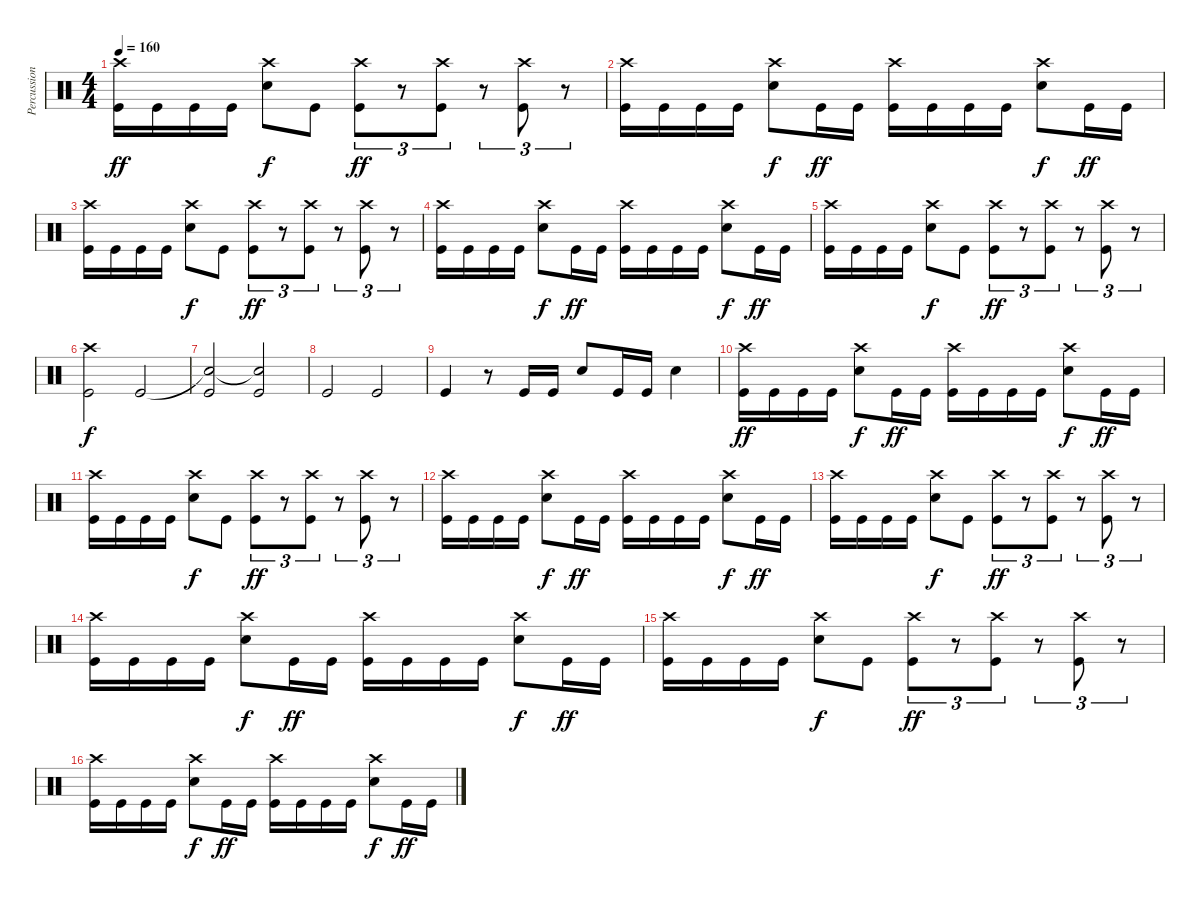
\track ("Percussion" "Percussion") {instrument percussion}
\staff {score}
\articulation defaults
\ts (4 4)
\tempo 160
\clef neutral
\ks c
("Crash high (hit)" "Kick (hit)").16{dy ff} "Kick (hit)".16 "Kick (hit)".16 "Kick (hit)".16 ("Crash high (hit)" "Electric Snare (hit)").8{dy f} "Kick (hit)".8 ("Crash high (hit)" "Kick (hit)").8{tu (3 2) dy ff} r.8{tu (3 2)} ("Crash high (hit)" "Kick (hit)").8{tu (3 2)} r.8{tu (3 2)} ("Crash high (hit)" "Kick (hit)").8{tu (3 2)} r.8{tu (3 2)} |
("Crash high (hit)" "Kick (hit)").16 "Kick (hit)".16 "Kick (hit)".16 "Kick (hit)".16 ("Crash high (hit)" "Electric Snare (hit)").8{dy f} "Kick (hit)".16{dy ff} "Kick (hit)".16 ("Crash high (hit)" "Kick (hit)").16 "Kick (hit)".16 "Kick (hit)".16 "Kick (hit)".16 ("Crash high (hit)" "Electric Snare (hit)").8{dy f} "Kick (hit)".16{dy ff} "Kick (hit)".16 |
("Crash high (hit)" "Kick (hit)").16 "Kick (hit)".16 "Kick (hit)".16 "Kick (hit)".16 ("Crash high (hit)" "Electric Snare (hit)").8{dy f} "Kick (hit)".8 ("Crash high (hit)" "Kick (hit)").8{tu (3 2) dy ff} r.8{tu (3 2)} ("Crash high (hit)" "Kick (hit)").8{tu (3 2)} r.8{tu (3 2)} ("Crash high (hit)" "Kick (hit)").8{tu (3 2)} r.8{tu (3 2)} |
("Crash high (hit)" "Kick (hit)").16 "Kick (hit)".16 "Kick (hit)".16 "Kick (hit)".16 ("Crash high (hit)" "Electric Snare (hit)").8{dy f} "Kick (hit)".16{dy ff} "Kick (hit)".16 ("Crash high (hit)" "Kick (hit)").16 "Kick (hit)".16 "Kick (hit)".16 "Kick (hit)".16 ("Crash high (hit)" "Electric Snare (hit)").8{dy f} "Kick (hit)".16{dy ff} "Kick (hit)".16 |
("Crash high (hit)" "Kick (hit)").16 "Kick (hit)".16 "Kick (hit)".16 "Kick (hit)".16 ("Crash high (hit)" "Electric Snare (hit)").8{dy f} "Kick (hit)".8 ("Crash high (hit)" "Kick (hit)").8{tu (3 2) dy ff} r.8{tu (3 2)} ("Crash high (hit)" "Kick (hit)").8{tu (3 2)} r.8{tu (3 2)} ("Crash high (hit)" "Kick (hit)").8{tu (3 2)} r.8{tu (3 2)} |
("Crash high (hit)" "Kick (hit)").2{dy f} "Kick (hit)".2 |
("Snare (hit)"{t} "Kick (hit)").2 ("Snare (hit)"{t} "Kick (hit)").2 |
"Kick (hit)".2 "Kick (hit)".2 |
"Kick (hit)".4 r.8 "Kick (hit)".16 "Kick (hit)".16 "Electric Snare (hit)".8 "Kick (hit)".16 "Kick (hit)".16 "Electric Snare (hit)".4 |
("Crash high (hit)" "Kick (hit)").16{dy ff} "Kick (hit)".16 "Kick (hit)".16 "Kick (hit)".16 ("Crash high (hit)" "Electric Snare (hit)").8{dy f} "Kick (hit)".16{dy ff} "Kick (hit)".16 ("Crash high (hit)" "Kick (hit)").16 "Kick (hit)".16 "Kick (hit)".16 "Kick (hit)".16 ("Crash high (hit)" "Electric Snare (hit)").8{dy f} "Kick (hit)".16{dy ff} "Kick (hit)".16 |
("Crash high (hit)" "Kick (hit)").16 "Kick (hit)".16 "Kick (hit)".16 "Kick (hit)".16 ("Crash high (hit)" "Electric Snare (hit)").8{dy f} "Kick (hit)".8 ("Crash high (hit)" "Kick (hit)").8{tu (3 2) dy ff} r.8{tu (3 2)} ("Crash high (hit)" "Kick (hit)").8{tu (3 2)} r.8{tu (3 2)} ("Crash high (hit)" "Kick (hit)").8{tu (3 2)} r.8{tu (3 2)} |
("Crash high (hit)" "Kick (hit)").16 "Kick (hit)".16 "Kick (hit)".16 "Kick (hit)".16 ("Crash high (hit)" "Electric Snare (hit)").8{dy f} "Kick (hit)".16{dy ff} "Kick (hit)".16 ("Crash high (hit)" "Kick (hit)").16 "Kick (hit)".16 "Kick (hit)".16 "Kick (hit)".16 ("Crash high (hit)" "Electric Snare (hit)").8{dy f} "Kick (hit)".16{dy ff} "Kick (hit)".16 |
("Crash high (hit)" "Kick (hit)").16 "Kick (hit)".16 "Kick (hit)".16 "Kick (hit)".16 ("Crash high (hit)" "Electric Snare (hit)").8{dy f} "Kick (hit)".8 ("Crash high (hit)" "Kick (hit)").8{tu (3 2) dy ff} r.8{tu (3 2)} ("Crash high (hit)" "Kick (hit)").8{tu (3 2)} r.8{tu (3 2)} ("Crash high (hit)" "Kick (hit)").8{tu (3 2)} r.8{tu (3 2)} |
("Crash high (hit)" "Kick (hit)").16 "Kick (hit)".16 "Kick (hit)".16 "Kick (hit)".16 ("Crash high (hit)" "Electric Snare (hit)").8{dy f} "Kick (hit)".16{dy ff} "Kick (hit)".16 ("Crash high (hit)" "Kick (hit)").16 "Kick (hit)".16 "Kick (hit)".16 "Kick (hit)".16 ("Crash high (hit)" "Electric Snare (hit)").8{dy f} "Kick (hit)".16{dy ff} "Kick (hit)".16 |
("Crash high (hit)" "Kick (hit)").16 "Kick (hit)".16 "Kick (hit)".16 "Kick (hit)".16 ("Crash high (hit)" "Electric Snare (hit)").8{dy f} "Kick (hit)".8 ("Crash high (hit)" "Kick (hit)").8{tu (3 2) dy ff} r.8{tu (3 2)} ("Crash high (hit)" "Kick (hit)").8{tu (3 2)} r.8{tu (3 2)} ("Crash high (hit)" "Kick (hit)").8{tu (3 2)} r.8{tu (3 2)} |
("Crash high (hit)" "Kick (hit)").16 "Kick (hit)".16 "Kick (hit)".16 "Kick (hit)".16 ("Crash high (hit)" "Electric Snare (hit)").8{dy f} "Kick (hit)".16{dy ff} "Kick (hit)".16 ("Crash high (hit)" "Kick (hit)").16 "Kick (hit)".16 "Kick (hit)".16 "Kick (hit)".16 ("Crash high (hit)" "Electric Snare (hit)").8{dy f} "Kick (hit)".16{dy ff} "Kick (hit)".16
